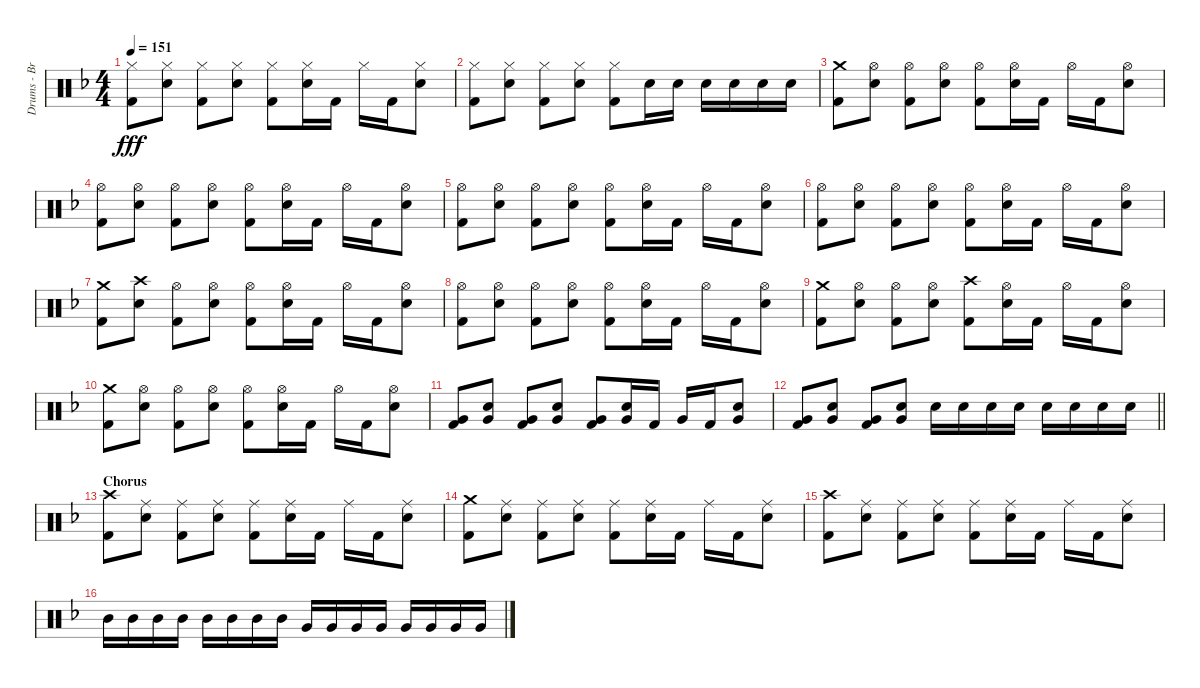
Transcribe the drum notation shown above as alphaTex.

\track ("Drums - Brooks Wackerman" "Drums - Br") {instrument percussion}
\staff {score}
\articulation defaults
\ts (4 4)
\tempo 151
\clef neutral
\ks f
("Hi-Hat (closed)" "Kick (hit) 2").8{dy fff} ("Hi-Hat (closed)" "Snare (hit) 2").8 ("Hi-Hat (closed)" "Kick (hit) 2").8 ("Hi-Hat (closed)" "Snare (hit) 2").8 ("Hi-Hat (closed)" "Kick (hit) 2").8 ("Hi-Hat (closed)" "Snare (hit) 2").16 "Kick (hit) 2".16 "Hi-Hat (closed)".16 "Kick (hit) 2".16 ("Hi-Hat (closed)" "Snare (hit) 2").8 |
("Hi-Hat (closed)" "Kick (hit) 2").8 ("Hi-Hat (closed)" "Snare (hit) 2").8 ("Hi-Hat (closed)" "Kick (hit) 2").8 ("Hi-Hat (closed)" "Snare (hit) 2").8 ("Hi-Hat (closed)" "Kick (hit) 2").8 "Snare (hit) 2".16 "Snare (hit) 2".16 "Snare (hit) 2".16 "Snare (hit) 2".16 "Snare (hit) 2".16 "Snare (hit) 2".16 |
("Crash medium (hit)" "Kick (hit) 2").8 ("Hi-Hat (open)" "Snare (hit) 2").8 ("Hi-Hat (open)" "Kick (hit) 2").8 ("Hi-Hat (open)" "Snare (hit) 2").8 ("Hi-Hat (open)" "Kick (hit) 2").8 ("Hi-Hat (open)" "Snare (hit) 2").16 "Kick (hit) 2".16 "Hi-Hat (open)".16 "Kick (hit) 2".16 ("Hi-Hat (open)" "Snare (hit) 2").8 |
("Hi-Hat (open)" "Kick (hit) 2").8 ("Hi-Hat (open)" "Snare (hit) 2").8 ("Hi-Hat (open)" "Kick (hit) 2").8 ("Hi-Hat (open)" "Snare (hit) 2").8 ("Hi-Hat (open)" "Kick (hit) 2").8 ("Hi-Hat (open)" "Snare (hit) 2").16 "Kick (hit) 2".16 "Hi-Hat (open)".16 "Kick (hit) 2".16 ("Hi-Hat (open)" "Snare (hit) 2").8 |
("Hi-Hat (open)" "Kick (hit) 2").8 ("Hi-Hat (open)" "Snare (hit) 2").8 ("Hi-Hat (open)" "Kick (hit) 2").8 ("Hi-Hat (open)" "Snare (hit) 2").8 ("Hi-Hat (open)" "Kick (hit) 2").8 ("Hi-Hat (open)" "Snare (hit) 2").16 "Kick (hit) 2".16 "Hi-Hat (open)".16 "Kick (hit) 2".16 ("Hi-Hat (open)" "Snare (hit) 2").8 |
("Hi-Hat (open)" "Kick (hit) 2").8 ("Hi-Hat (open)" "Snare (hit) 2").8 ("Hi-Hat (open)" "Kick (hit) 2").8 ("Hi-Hat (open)" "Snare (hit) 2").8 ("Hi-Hat (open)" "Kick (hit) 2").8 ("Hi-Hat (open)" "Snare (hit) 2").16 "Kick (hit) 2".16 "Hi-Hat (open)".16 "Kick (hit) 2".16 ("Hi-Hat (open)" "Snare (hit) 2").8 |
("Crash medium (hit)" "Kick (hit) 2").8 ("Crash high (hit)" "Snare (hit) 2").8 ("Hi-Hat (open)" "Kick (hit) 2").8 ("Hi-Hat (open)" "Snare (hit) 2").8 ("Hi-Hat (open)" "Kick (hit) 2").8 ("Hi-Hat (open)" "Snare (hit) 2").16 "Kick (hit) 2".16 "Hi-Hat (open)".16 "Kick (hit) 2".16 ("Hi-Hat (open)" "Snare (hit) 2").8 |
("Hi-Hat (open)" "Kick (hit) 2").8 ("Hi-Hat (open)" "Snare (hit) 2").8 ("Hi-Hat (open)" "Kick (hit) 2").8 ("Hi-Hat (open)" "Snare (hit) 2").8 ("Hi-Hat (open)" "Kick (hit) 2").8 ("Hi-Hat (open)" "Snare (hit) 2").16 "Kick (hit) 2".16 "Hi-Hat (open)".16 "Kick (hit) 2".16 ("Hi-Hat (open)" "Snare (hit) 2").8 |
("Crash medium (hit)" "Kick (hit) 2").8 ("Hi-Hat (open)" "Snare (hit) 2").8 ("Hi-Hat (open)" "Kick (hit) 2").8 ("Hi-Hat (open)" "Snare (hit) 2").8 ("Crash high (hit)" "Kick (hit) 2").8 ("Hi-Hat (open)" "Snare (hit) 2").16 "Kick (hit) 2".16 "Hi-Hat (open)".16 "Kick (hit) 2".16 ("Hi-Hat (open)" "Snare (hit) 2").8 |
("Crash medium (hit)" "Kick (hit) 2").8 ("Hi-Hat (open)" "Snare (hit) 2").8 ("Hi-Hat (open)" "Kick (hit) 2").8 ("Hi-Hat (open)" "Snare (hit) 2").8 ("Hi-Hat (open)" "Kick (hit) 2").8 ("Hi-Hat (open)" "Snare (hit) 2").16 "Kick (hit) 2".16 "Hi-Hat (open)".16 "Kick (hit) 2".16 ("Hi-Hat (open)" "Snare (hit) 2").8 |
("Very Low Tom (hit)" "Kick (hit) 2").8 ("Snare (hit) 2" "Very Low Tom (hit)").8 ("Very Low Tom (hit)" "Kick (hit) 2").8 ("Snare (hit) 2" "Very Low Tom (hit)").8 ("Very Low Tom (hit)" "Kick (hit) 2").8 ("Snare (hit) 2" "Very Low Tom (hit)").16 "Kick (hit) 2".16 "Very Low Tom (hit)".16 "Kick (hit) 2".16 ("Snare (hit) 2" "Very Low Tom (hit)").8 |
\barLineRight lightlight
("Very Low Tom (hit)" "Kick (hit) 2").8 ("Snare (hit) 2" "Very Low Tom (hit)").8 ("Very Low Tom (hit)" "Kick (hit) 2").8 ("Snare (hit) 2" "Very Low Tom (hit)").8 "Snare (hit) 2".16 "Snare (hit) 2".16 "Snare (hit) 2".16 "Snare (hit) 2".16 "Snare (hit) 2".16 "Snare (hit) 2".16 "Snare (hit) 2".16 "Snare (hit) 2".16 |
\section ("" "Chorus")
("Crash high (hit)" "Kick (hit) 2").8 ("Ride (middle)" "Snare (hit) 2").8 ("Ride (middle)" "Kick (hit) 2").8 ("Ride (middle)" "Snare (hit) 2").8 ("Ride (middle)" "Kick (hit) 2").8 ("Ride (middle)" "Snare (hit) 2").16 "Kick (hit) 2".16 "Ride (middle)".16 "Kick (hit) 2".16 ("Ride (middle)" "Snare (hit) 2").8 |
("Crash medium (hit)" "Kick (hit) 2").8 ("Ride (middle)" "Snare (hit) 2").8 ("Ride (middle)" "Kick (hit) 2").8 ("Ride (middle)" "Snare (hit) 2").8 ("Ride (middle)" "Kick (hit) 2").8 ("Ride (middle)" "Snare (hit) 2").16 "Kick (hit) 2".16 "Ride (middle)".16 "Kick (hit) 2".16 ("Ride (middle)" "Snare (hit) 2").8 |
("Crash high (hit)" "Kick (hit) 2").8 ("Ride (middle)" "Snare (hit) 2").8 ("Ride (middle)" "Kick (hit) 2").8 ("Ride (middle)" "Snare (hit) 2").8 ("Ride (middle)" "Kick (hit) 2").8 ("Ride (middle)" "Snare (hit) 2").16 "Kick (hit) 2".16 "Ride (middle)".16 "Kick (hit) 2".16 ("Ride (middle)" "Snare (hit) 2").8 |
"Mid Tom (hit)".16 "Mid Tom (hit)".16 "Mid Tom (hit)".16 "Mid Tom (hit)".16 "Mid Tom (hit)".16 "Mid Tom (hit)".16 "Mid Tom (hit)".16 "Mid Tom (hit)".16 "Very Low Tom (hit)".16 "Very Low Tom (hit)".16 "Very Low Tom (hit)".16 "Very Low Tom (hit)".16 "Very Low Tom (hit)".16 "Very Low Tom (hit)".16 "Very Low Tom (hit)".16 "Very Low Tom (hit)".16
